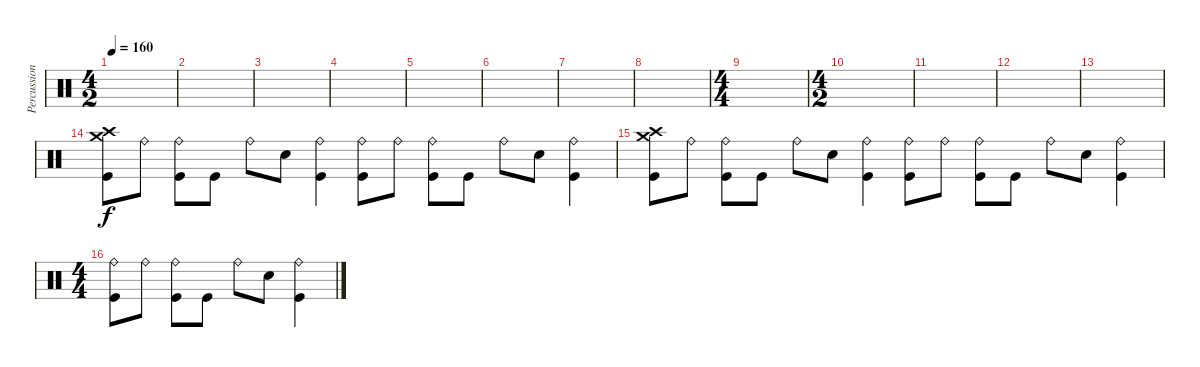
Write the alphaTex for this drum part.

\track ("Percussion" "Percussion") {instrument percussion}
\staff {score}
\articulation defaults
\ts (4 2)
\tempo 160
\clef neutral
\ks c
|
|
|
|
|
|
|
|
\ts (4 4)
|
\ts (4 2)
|
|
|
|
("Kick (hit)" "Crash high (hit)" "Crash medium (hit)").8 "Ride (bell)".8 ("Kick (hit)" "Ride (bell)").8 "Kick (hit)".8 "Ride (bell)".8 "Electric Snare (hit)".8 ("Kick (hit)" "Ride (bell)").4 ("Kick (hit)" "Ride (bell)").8 "Ride (bell)".8 ("Kick (hit)" "Ride (bell)").8 "Kick (hit)".8 "Ride (bell)".8 "Electric Snare (hit)".8 ("Kick (hit)" "Ride (bell)").4 |
("Kick (hit)" "Crash high (hit)" "Crash medium (hit)").8 "Ride (bell)".8 ("Kick (hit)" "Ride (bell)").8 "Kick (hit)".8 "Ride (bell)".8 "Electric Snare (hit)".8 ("Kick (hit)" "Ride (bell)").4 ("Kick (hit)" "Ride (bell)").8 "Ride (bell)".8 ("Kick (hit)" "Ride (bell)").8 "Kick (hit)".8 "Ride (bell)".8 "Electric Snare (hit)".8 ("Kick (hit)" "Ride (bell)").4 |
\ts (4 4)
("Kick (hit)" "Ride (bell)").8 "Ride (bell)".8 ("Kick (hit)" "Ride (bell)").8 "Kick (hit)".8 "Ride (bell)".8 "Electric Snare (hit)".8 ("Kick (hit)" "Ride (bell)").4
